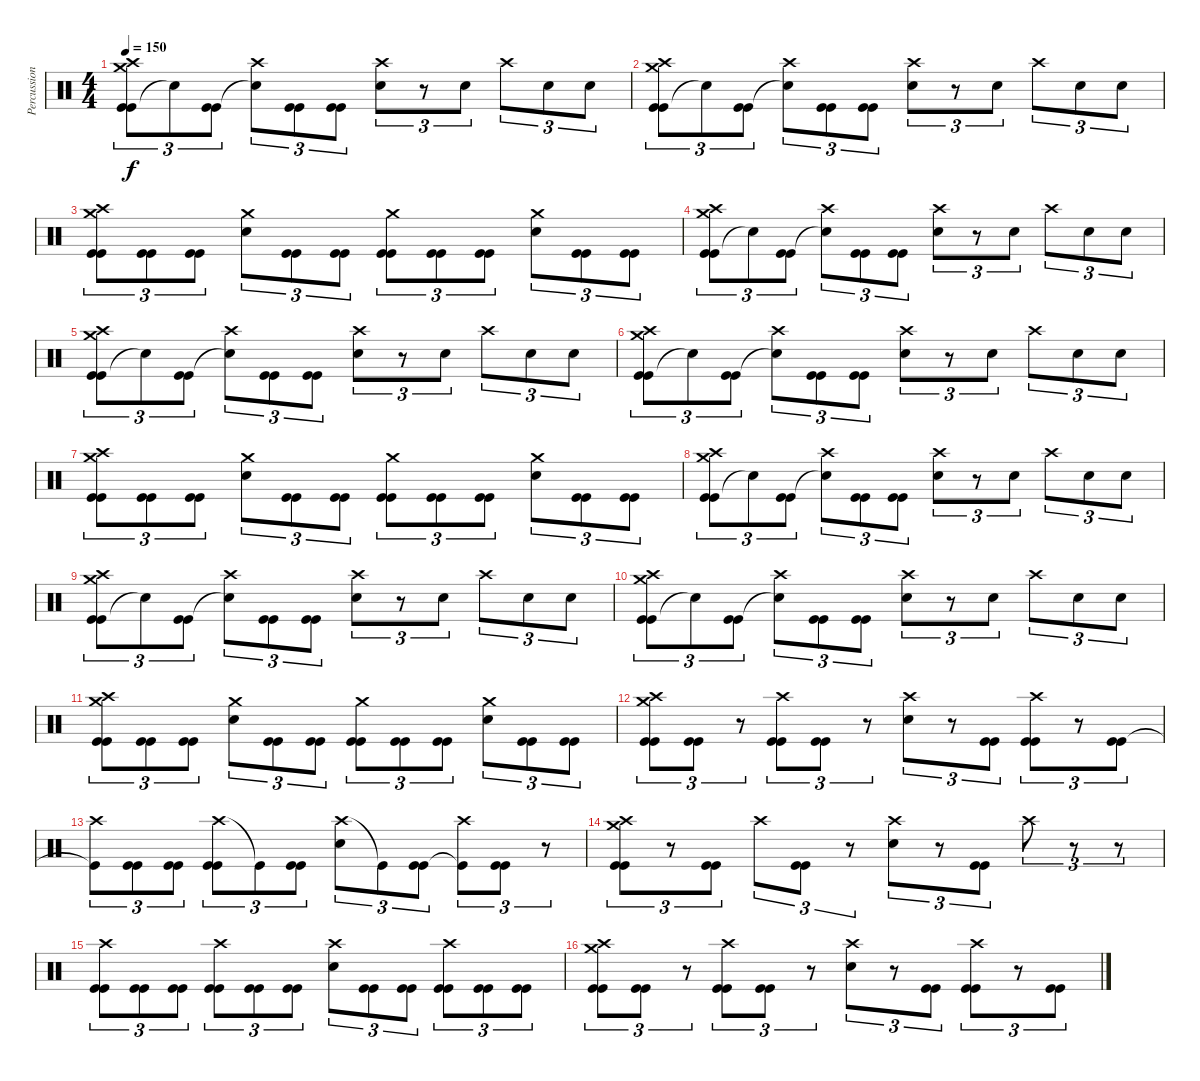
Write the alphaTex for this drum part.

\track ("Percussion" "Percussion") {instrument percussion}
\staff {score}
\articulation defaults
\ts (4 4)
\tempo 150
\clef neutral
\ks c
("Kick (hit)" "Crash medium (hit)" "Crash high (hit)" "Kick (hit)").8{tu (3 2) dy f} "Snare (hit)"{t}.8{tu (3 2)} ("Kick (hit)" "Kick (hit)").8{tu (3 2)} ("Crash high (hit)" "Snare (hit)"{t}).8{tu (3 2)} ("Kick (hit)" "Kick (hit)").8{tu (3 2)} ("Kick (hit)" "Kick (hit)").8{tu (3 2)} ("Crash high (hit)" "Snare (hit) 2").8{tu (3 2)} r.8{tu (3 2)} "Snare (hit) 2".8{tu (3 2)} "Crash high (hit)".8{tu (3 2)} "Snare (hit) 2".8{tu (3 2)} "Snare (hit) 2".8{tu (3 2)} |
("Kick (hit)" "Crash medium (hit)" "Crash high (hit)" "Kick (hit)").8{tu (3 2)} "Snare (hit)"{t}.8{tu (3 2)} ("Kick (hit)" "Kick (hit)").8{tu (3 2)} ("Crash high (hit)" "Snare (hit)"{t}).8{tu (3 2)} ("Kick (hit)" "Kick (hit)").8{tu (3 2)} ("Kick (hit)" "Kick (hit)").8{tu (3 2)} ("Crash high (hit)" "Snare (hit) 2").8{tu (3 2)} r.8{tu (3 2)} "Snare (hit) 2".8{tu (3 2)} "Crash high (hit)".8{tu (3 2)} "Snare (hit) 2".8{tu (3 2)} "Snare (hit) 2".8{tu (3 2)} |
("Crash medium (hit)" "Crash high (hit)" "Kick (hit)" "Kick (hit)").8{tu (3 2)} ("Kick (hit)" "Kick (hit)").8{tu (3 2)} ("Kick (hit)" "Kick (hit)").8{tu (3 2)} ("Crash medium (hit)" "Snare (hit) 2").8{tu (3 2)} ("Kick (hit)" "Kick (hit)").8{tu (3 2)} ("Kick (hit)" "Kick (hit)").8{tu (3 2)} ("Crash medium (hit)" "Kick (hit)" "Kick (hit)").8{tu (3 2)} ("Kick (hit)" "Kick (hit)").8{tu (3 2)} ("Kick (hit)" "Kick (hit)").8{tu (3 2)} ("Crash medium (hit)" "Snare (hit) 2").8{tu (3 2)} ("Kick (hit)" "Kick (hit)").8{tu (3 2)} ("Kick (hit)" "Kick (hit)").8{tu (3 2)} |
("Kick (hit)" "Crash medium (hit)" "Crash high (hit)" "Kick (hit)").8{tu (3 2)} "Snare (hit)"{t}.8{tu (3 2)} ("Kick (hit)" "Kick (hit)").8{tu (3 2)} ("Crash high (hit)" "Snare (hit)"{t}).8{tu (3 2)} ("Kick (hit)" "Kick (hit)").8{tu (3 2)} ("Kick (hit)" "Kick (hit)").8{tu (3 2)} ("Crash high (hit)" "Snare (hit) 2").8{tu (3 2)} r.8{tu (3 2)} "Snare (hit) 2".8{tu (3 2)} "Crash high (hit)".8{tu (3 2)} "Snare (hit) 2".8{tu (3 2)} "Snare (hit) 2".8{tu (3 2)} |
("Kick (hit)" "Crash medium (hit)" "Crash high (hit)" "Kick (hit)").8{tu (3 2)} "Snare (hit)"{t}.8{tu (3 2)} ("Kick (hit)" "Kick (hit)").8{tu (3 2)} ("Crash high (hit)" "Snare (hit)"{t}).8{tu (3 2)} ("Kick (hit)" "Kick (hit)").8{tu (3 2)} ("Kick (hit)" "Kick (hit)").8{tu (3 2)} ("Crash high (hit)" "Snare (hit) 2").8{tu (3 2)} r.8{tu (3 2)} "Snare (hit) 2".8{tu (3 2)} "Crash high (hit)".8{tu (3 2)} "Snare (hit) 2".8{tu (3 2)} "Snare (hit) 2".8{tu (3 2)} |
("Kick (hit)" "Crash medium (hit)" "Crash high (hit)" "Kick (hit)").8{tu (3 2)} "Snare (hit)"{t}.8{tu (3 2)} ("Kick (hit)" "Kick (hit)").8{tu (3 2)} ("Crash high (hit)" "Snare (hit)"{t}).8{tu (3 2)} ("Kick (hit)" "Kick (hit)").8{tu (3 2)} ("Kick (hit)" "Kick (hit)").8{tu (3 2)} ("Crash high (hit)" "Snare (hit) 2").8{tu (3 2)} r.8{tu (3 2)} "Snare (hit) 2".8{tu (3 2)} "Crash high (hit)".8{tu (3 2)} "Snare (hit) 2".8{tu (3 2)} "Snare (hit) 2".8{tu (3 2)} |
("Crash medium (hit)" "Crash high (hit)" "Kick (hit)" "Kick (hit)").8{tu (3 2)} ("Kick (hit)" "Kick (hit)").8{tu (3 2)} ("Kick (hit)" "Kick (hit)").8{tu (3 2)} ("Crash medium (hit)" "Snare (hit) 2").8{tu (3 2)} ("Kick (hit)" "Kick (hit)").8{tu (3 2)} ("Kick (hit)" "Kick (hit)").8{tu (3 2)} ("Crash medium (hit)" "Kick (hit)" "Kick (hit)").8{tu (3 2)} ("Kick (hit)" "Kick (hit)").8{tu (3 2)} ("Kick (hit)" "Kick (hit)").8{tu (3 2)} ("Crash medium (hit)" "Snare (hit) 2").8{tu (3 2)} ("Kick (hit)" "Kick (hit)").8{tu (3 2)} ("Kick (hit)" "Kick (hit)").8{tu (3 2)} |
("Kick (hit)" "Crash medium (hit)" "Crash high (hit)" "Kick (hit)").8{tu (3 2)} "Snare (hit)"{t}.8{tu (3 2)} ("Kick (hit)" "Kick (hit)").8{tu (3 2)} ("Crash high (hit)" "Snare (hit)"{t}).8{tu (3 2)} ("Kick (hit)" "Kick (hit)").8{tu (3 2)} ("Kick (hit)" "Kick (hit)").8{tu (3 2)} ("Crash high (hit)" "Snare (hit) 2").8{tu (3 2)} r.8{tu (3 2)} "Snare (hit) 2".8{tu (3 2)} "Crash high (hit)".8{tu (3 2)} "Snare (hit) 2".8{tu (3 2)} "Snare (hit) 2".8{tu (3 2)} |
("Kick (hit)" "Crash medium (hit)" "Crash high (hit)" "Kick (hit)").8{tu (3 2)} "Snare (hit)"{t}.8{tu (3 2)} ("Kick (hit)" "Kick (hit)").8{tu (3 2)} ("Crash high (hit)" "Snare (hit)"{t}).8{tu (3 2)} ("Kick (hit)" "Kick (hit)").8{tu (3 2)} ("Kick (hit)" "Kick (hit)").8{tu (3 2)} ("Crash high (hit)" "Snare (hit) 2").8{tu (3 2)} r.8{tu (3 2)} "Snare (hit) 2".8{tu (3 2)} "Crash high (hit)".8{tu (3 2)} "Snare (hit) 2".8{tu (3 2)} "Snare (hit) 2".8{tu (3 2)} |
("Kick (hit)" "Crash medium (hit)" "Crash high (hit)" "Kick (hit)").8{tu (3 2)} "Snare (hit)"{t}.8{tu (3 2)} ("Kick (hit)" "Kick (hit)").8{tu (3 2)} ("Crash high (hit)" "Snare (hit)"{t}).8{tu (3 2)} ("Kick (hit)" "Kick (hit)").8{tu (3 2)} ("Kick (hit)" "Kick (hit)").8{tu (3 2)} ("Crash high (hit)" "Snare (hit) 2").8{tu (3 2)} r.8{tu (3 2)} "Snare (hit) 2".8{tu (3 2)} "Crash high (hit)".8{tu (3 2)} "Snare (hit) 2".8{tu (3 2)} "Snare (hit) 2".8{tu (3 2)} |
("Crash medium (hit)" "Crash high (hit)" "Kick (hit)" "Kick (hit)").8{tu (3 2)} ("Kick (hit)" "Kick (hit)").8{tu (3 2)} ("Kick (hit)" "Kick (hit)").8{tu (3 2)} ("Crash medium (hit)" "Snare (hit) 2").8{tu (3 2)} ("Kick (hit)" "Kick (hit)").8{tu (3 2)} ("Kick (hit)" "Kick (hit)").8{tu (3 2)} ("Crash medium (hit)" "Kick (hit)" "Kick (hit)").8{tu (3 2)} ("Kick (hit)" "Kick (hit)").8{tu (3 2)} ("Kick (hit)" "Kick (hit)").8{tu (3 2)} ("Crash medium (hit)" "Snare (hit) 2").8{tu (3 2)} ("Kick (hit)" "Kick (hit)").8{tu (3 2)} ("Kick (hit)" "Kick (hit)").8{tu (3 2)} |
("Kick (hit)" "Kick (hit)" "Crash high (hit)" "Crash medium (hit)").8{tu (3 2)} ("Kick (hit)" "Kick (hit)").8{tu (3 2)} r.8{tu (3 2)} ("Kick (hit)" "Kick (hit)" "Crash high (hit)").8{tu (3 2)} ("Kick (hit)" "Kick (hit)").8{tu (3 2)} r.8{tu (3 2)} ("Snare (hit) 2" "Crash high (hit)").8{tu (3 2)} r.8{tu (3 2)} ("Kick (hit)" "Kick (hit)").8{tu (3 2)} ("Kick (hit)" "Kick (hit)" "Crash high (hit)").8{tu (3 2)} r.8{tu (3 2)} ("Kick (hit)" "Kick (hit)").8{tu (3 2)} |
("Crash high (hit)" "Kick (hit)"{t}).8{tu (3 2)} ("Kick (hit)" "Kick (hit)").8{tu (3 2)} ("Kick (hit)" "Kick (hit)").8{tu (3 2)} ("Crash high (hit)" "Kick (hit)" "Kick (hit)").8{tu (3 2)} "Kick (hit)"{t}.8{tu (3 2)} ("Kick (hit)" "Kick (hit)").8{tu (3 2)} ("Crash high (hit)" "Snare (hit) 2").8{tu (3 2)} "Kick (hit)"{t}.8{tu (3 2)} ("Kick (hit)" "Kick (hit)").8{tu (3 2)} ("Crash high (hit)" "Kick (hit)"{t}).8{tu (3 2)} ("Kick (hit)" "Kick (hit)").8{tu (3 2)} r.8{tu (3 2)} |
("Crash high (hit)" "Kick (hit)" "Crash medium (hit)" "Kick (hit)").8{tu (3 2)} r.8{tu (3 2)} ("Kick (hit)" "Kick (hit)").8{tu (3 2)} "Crash high (hit)".8{tu (3 2)} ("Kick (hit)" "Kick (hit)").8{tu (3 2)} r.8{tu (3 2)} ("Crash high (hit)" "Snare (hit) 2").8{tu (3 2)} r.8{tu (3 2)} ("Kick (hit)" "Kick (hit)").8{tu (3 2)} "Crash high (hit)".8{tu (3 2)} r.8{tu (3 2)} r.8{tu (3 2)} |
("Crash high (hit)" "Kick (hit)" "Kick (hit)").8{tu (3 2)} ("Kick (hit)" "Kick (hit)").8{tu (3 2)} ("Kick (hit)" "Kick (hit)").8{tu (3 2)} ("Crash high (hit)" "Kick (hit)" "Kick (hit)").8{tu (3 2)} ("Kick (hit)" "Kick (hit)").8{tu (3 2)} ("Kick (hit)" "Kick (hit)").8{tu (3 2)} ("Crash high (hit)" "Snare (hit) 2").8{tu (3 2)} ("Kick (hit)" "Kick (hit)").8{tu (3 2)} ("Kick (hit)" "Kick (hit)").8{tu (3 2)} ("Crash high (hit)" "Kick (hit)" "Kick (hit)").8{tu (3 2)} ("Kick (hit)" "Kick (hit)").8{tu (3 2)} ("Kick (hit)" "Kick (hit)").8{tu (3 2)} |
("Kick (hit)" "Kick (hit)" "Crash high (hit)" "Crash medium (hit)").8{tu (3 2)} ("Kick (hit)" "Kick (hit)").8{tu (3 2)} r.8{tu (3 2)} ("Kick (hit)" "Kick (hit)" "Crash high (hit)").8{tu (3 2)} ("Kick (hit)" "Kick (hit)").8{tu (3 2)} r.8{tu (3 2)} ("Snare (hit) 2" "Crash high (hit)").8{tu (3 2)} r.8{tu (3 2)} ("Kick (hit)" "Kick (hit)").8{tu (3 2)} ("Kick (hit)" "Kick (hit)" "Crash high (hit)").8{tu (3 2)} r.8{tu (3 2)} ("Kick (hit)" "Kick (hit)").8{tu (3 2)}
